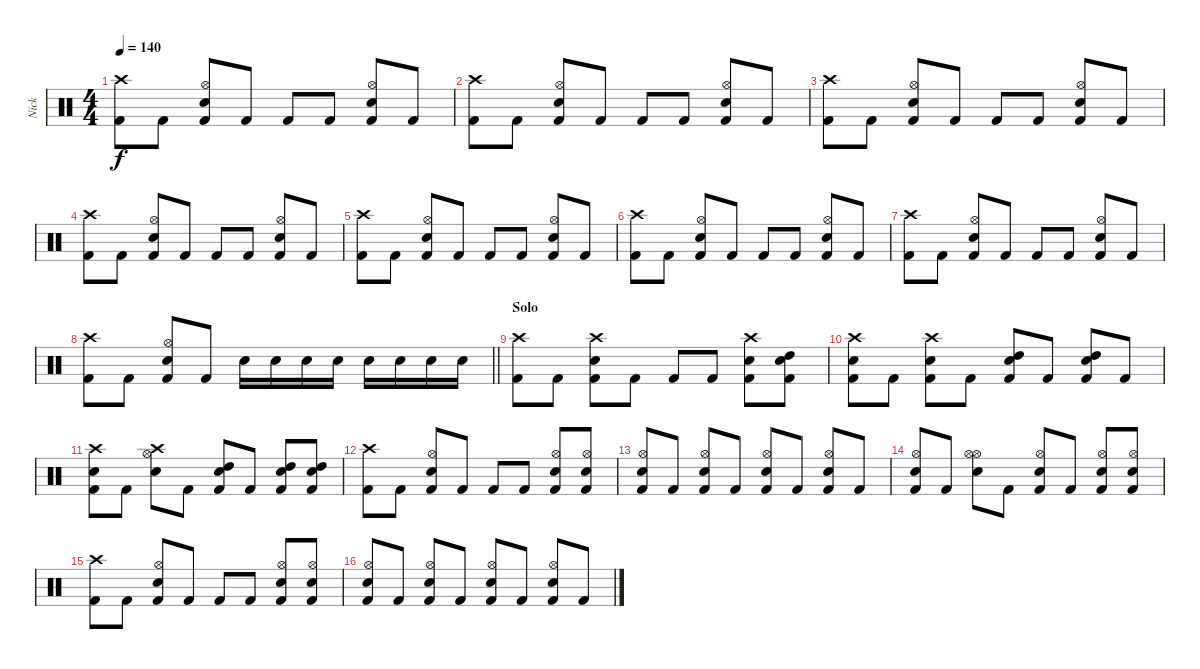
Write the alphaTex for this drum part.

\track ("Nick" "Nick") {instrument percussion}
\staff {score}
\articulation defaults
\ts (4 4)
\tempo 140
\clef neutral
\ks c
("Crash high (hit)" "Kick (hit) 2").8{dy f} "Kick (hit) 2".8 ("Hi-Hat (open)" "Snare (hit) 2" "Kick (hit) 2").8 "Kick (hit) 2".8 "Kick (hit) 2".8 "Kick (hit) 2".8 ("Hi-Hat (open)" "Snare (hit) 2" "Kick (hit) 2").8 "Kick (hit) 2".8 |
("Crash high (hit)" "Kick (hit) 2").8 "Kick (hit) 2".8 ("Hi-Hat (open)" "Snare (hit) 2" "Kick (hit) 2").8 "Kick (hit) 2".8 "Kick (hit) 2".8 "Kick (hit) 2".8 ("Hi-Hat (open)" "Snare (hit) 2" "Kick (hit) 2").8 "Kick (hit) 2".8 |
("Crash high (hit)" "Kick (hit) 2").8 "Kick (hit) 2".8 ("Hi-Hat (open)" "Snare (hit) 2" "Kick (hit) 2").8 "Kick (hit) 2".8 "Kick (hit) 2".8 "Kick (hit) 2".8 ("Hi-Hat (open)" "Snare (hit) 2" "Kick (hit) 2").8 "Kick (hit) 2".8 |
("Crash high (hit)" "Kick (hit) 2").8 "Kick (hit) 2".8 ("Hi-Hat (open)" "Snare (hit) 2" "Kick (hit) 2").8 "Kick (hit) 2".8 "Kick (hit) 2".8 "Kick (hit) 2".8 ("Hi-Hat (open)" "Snare (hit) 2" "Kick (hit) 2").8 "Kick (hit) 2".8 |
("Crash high (hit)" "Kick (hit) 2").8 "Kick (hit) 2".8 ("Hi-Hat (open)" "Snare (hit) 2" "Kick (hit) 2").8 "Kick (hit) 2".8 "Kick (hit) 2".8 "Kick (hit) 2".8 ("Hi-Hat (open)" "Snare (hit) 2" "Kick (hit) 2").8 "Kick (hit) 2".8 |
("Crash high (hit)" "Kick (hit) 2").8 "Kick (hit) 2".8 ("Hi-Hat (open)" "Snare (hit) 2" "Kick (hit) 2").8 "Kick (hit) 2".8 "Kick (hit) 2".8 "Kick (hit) 2".8 ("Hi-Hat (open)" "Snare (hit) 2" "Kick (hit) 2").8 "Kick (hit) 2".8 |
("Crash high (hit)" "Kick (hit) 2").8 "Kick (hit) 2".8 ("Hi-Hat (open)" "Snare (hit) 2" "Kick (hit) 2").8 "Kick (hit) 2".8 "Kick (hit) 2".8 "Kick (hit) 2".8 ("Hi-Hat (open)" "Snare (hit) 2" "Kick (hit) 2").8 "Kick (hit) 2".8 |
\barLineRight lightlight
("Crash high (hit)" "Kick (hit) 2").8 "Kick (hit) 2".8 ("Hi-Hat (open)" "Snare (hit) 2" "Kick (hit) 2").8 "Kick (hit) 2".8 "Snare (hit) 2".16 "Snare (hit) 2".16 "Snare (hit) 2".16 "Snare (hit) 2".16 "Snare (hit) 2".16 "Snare (hit) 2".16 "Snare (hit) 2".16 "Snare (hit) 2".16 |
\section ("" "Solo")
("Crash high (hit)" "Kick (hit) 2").8 "Kick (hit) 2".8 ("Crash high (hit)" "Snare (hit) 2" "Kick (hit) 2").8 "Kick (hit) 2".8 "Kick (hit) 2".8 "Kick (hit) 2".8 ("Crash high (hit)" "Snare (hit) 2" "Kick (hit) 2").8 ("High Tom (hit)" "Snare (hit) 2" "Kick (hit) 2").8 |
("Crash high (hit)" "Snare (hit) 2" "Kick (hit) 2").8 "Kick (hit) 2".8 ("Crash high (hit)" "Snare (hit) 2" "Kick (hit) 2").8 "Kick (hit) 2".8 ("High Tom (hit)" "Snare (hit) 2" "Kick (hit) 2").8 "Kick (hit) 2".8 ("High Tom (hit)" "Snare (hit) 2" "Kick (hit) 2").8 "Kick (hit) 2".8 |
("Crash high (hit)" "Snare (hit) 2" "Kick (hit) 2").8 "Kick (hit) 2".8 ("Crash high (hit)" "Snare (hit) 2" "Hi-Hat (open)").8 "Kick (hit) 2".8 ("High Tom (hit)" "Snare (hit) 2" "Kick (hit) 2").8 "Kick (hit) 2".8 ("High Tom (hit)" "Snare (hit) 2" "Kick (hit) 2").8 ("High Tom (hit)" "Snare (hit) 2" "Kick (hit) 2").8 |
("Crash high (hit)" "Kick (hit) 2").8 "Kick (hit) 2".8 ("Hi-Hat (open)" "Snare (hit) 2" "Kick (hit) 2").8 "Kick (hit) 2".8 "Kick (hit) 2".8 "Kick (hit) 2".8 ("Hi-Hat (open)" "Snare (hit) 2" "Kick (hit) 2").8 ("Hi-Hat (open)" "Snare (hit) 2" "Kick (hit) 2").8 |
("Hi-Hat (open)" "Snare (hit) 2" "Kick (hit) 2").8 "Kick (hit) 2".8 ("Hi-Hat (open)" "Snare (hit) 2" "Kick (hit) 2").8 "Kick (hit) 2".8 ("Hi-Hat (open)" "Snare (hit) 2" "Kick (hit) 2").8 "Kick (hit) 2".8 ("Hi-Hat (open)" "Snare (hit) 2" "Kick (hit) 2").8 "Kick (hit) 2".8 |
("Hi-Hat (open)" "Snare (hit) 2" "Kick (hit) 2").8 "Kick (hit) 2".8 ("Hi-Hat (open)" "Snare (hit) 2" "Hi-Hat (open)").8 "Kick (hit) 2".8 ("Hi-Hat (open)" "Snare (hit) 2" "Kick (hit) 2").8 "Kick (hit) 2".8 ("Hi-Hat (open)" "Snare (hit) 2" "Kick (hit) 2").8 ("Hi-Hat (open)" "Snare (hit) 2" "Kick (hit) 2").8 |
("Crash high (hit)" "Kick (hit) 2").8 "Kick (hit) 2".8 ("Hi-Hat (open)" "Snare (hit) 2" "Kick (hit) 2").8 "Kick (hit) 2".8 "Kick (hit) 2".8 "Kick (hit) 2".8 ("Hi-Hat (open)" "Snare (hit) 2" "Kick (hit) 2").8 ("Hi-Hat (open)" "Snare (hit) 2" "Kick (hit) 2").8 |
("Hi-Hat (open)" "Snare (hit) 2" "Kick (hit) 2").8 "Kick (hit) 2".8 ("Hi-Hat (open)" "Snare (hit) 2" "Kick (hit) 2").8 "Kick (hit) 2".8 ("Hi-Hat (open)" "Snare (hit) 2" "Kick (hit) 2").8 "Kick (hit) 2".8 ("Hi-Hat (open)" "Snare (hit) 2" "Kick (hit) 2").8 "Kick (hit) 2".8
